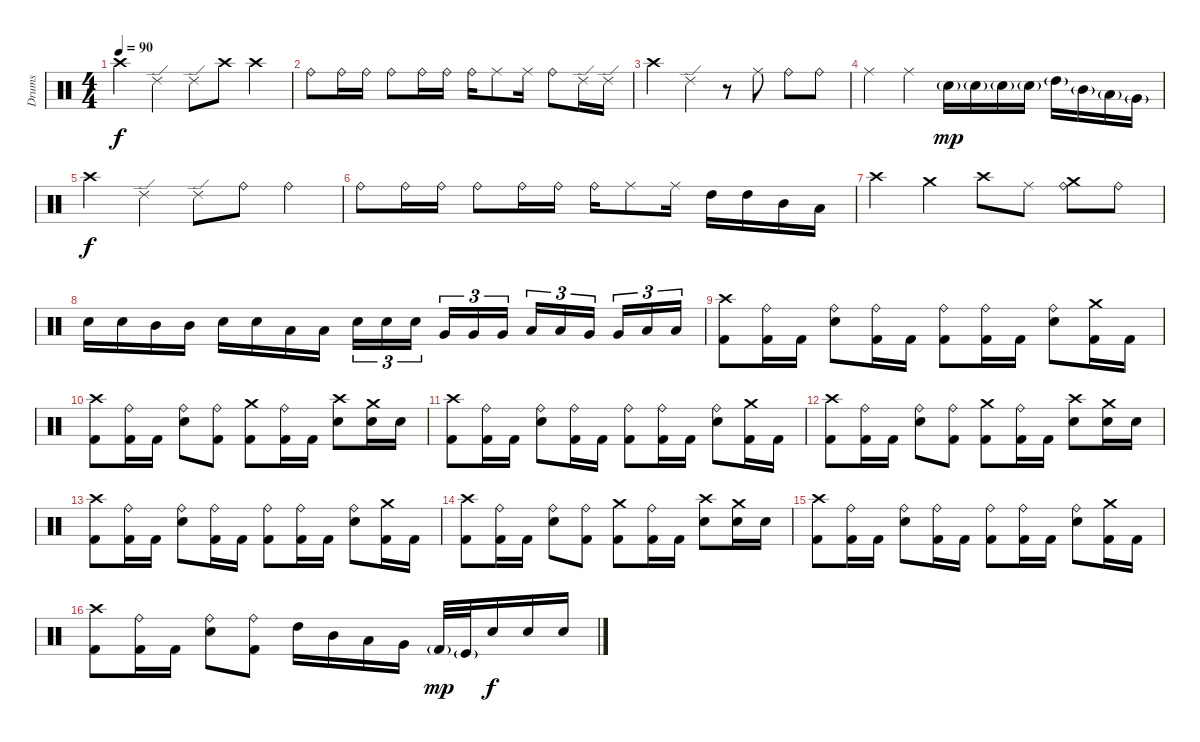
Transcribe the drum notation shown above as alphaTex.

\track ("Drums" "Drums") {instrument percussion}
\staff {score}
\articulation defaults
\ts (4 4)
\tempo 90
\clef neutral
\ks c "Crash high (hit)".4{dy f} "Ride (edge) 2".4 "Ride (edge) 2".8 "Crash high (hit)".8 "Crash high (hit)".4
|
"Ride (bell)".8 "Ride (bell)".16 "Ride (bell)".16 "Ride (bell)".8 "Ride (bell)".16 "Ride (bell)".16 "Ride (bell)".16 "Ride (middle)".8 "Ride (middle)".16 "Ride (bell)".8 "Ride (edge) 2".16 "Ride (edge) 2".16 |
"Crash high (hit)".4 "Ride (edge) 2".4 r.8 "Ride (middle)".8 "Ride (bell)".8 "Ride (bell)".8 |
"Ride (middle)".4 "Ride (middle)".4 "Snare (hit) 2"{g}.16{dy mp} "Snare (hit) 2"{g}.16 "Snare (hit) 2"{g}.16 "Snare (hit) 2"{g}.16 "High Tom (hit)"{g}.16 "Mid Tom (hit)"{g}.16 "Low Tom (hit)"{g}.16 "Very Low Tom (hit)"{g}.16 |
"Crash high (hit)".4{dy f} "Ride (edge) 2".4 "Ride (edge) 2".8 "Ride (bell)".8 "Ride (bell)".4 |
"Ride (bell)".8 "Ride (bell)".16 "Ride (bell)".16 "Ride (bell)".8 "Ride (bell)".16 "Ride (bell)".16 "Ride (bell)".16 "Ride (middle)".8 "Ride (middle)".16 "High Tom (hit)".16 "High Tom (hit)".16 "Mid Tom (hit)".16 "Low Tom (hit)".16 |
"Crash high (hit)".4 "Crash medium (hit)".4 "Crash high (hit)".8 "Ride (middle)".8 ("Crash medium (hit)" "Ride (bell)").8 "Ride (bell)".8 |
"Snare (hit) 2".16 "Snare (hit) 2".16 "Mid Tom (hit)".16 "Mid Tom (hit)".16 "Snare (hit) 2".16 "Snare (hit) 2".16 "Low Tom (hit)".16 "Low Tom (hit)".16 "Snare (hit) 2".16{tu (3 2)} "Snare (hit) 2".16{tu (3 2)} "Snare (hit) 2".16{tu (3 2)} "Very Low Tom (hit)".16{tu (3 2)} "Very Low Tom (hit)".16{tu (3 2)} "Very Low Tom (hit)".16{tu (3 2)} "Low Tom (hit)".16{tu (3 2)} "Low Tom (hit)".16{tu (3 2)} "Very Low Tom (hit)".16{tu (3 2)} "Very Low Tom (hit)".16{tu (3 2)} "Low Floor Tom (hit)".16{tu (3 2)} "Low Floor Tom (hit)".16{tu (3 2)} |
("Crash high (hit)" "Kick (hit) 2").8 ("Ride (bell)" "Kick (hit) 2").16 "Kick (hit) 2".16 ("Ride (bell)" "Snare (hit) 2").8 ("Ride (bell)" "Kick (hit) 2").16 "Kick (hit) 2".16 ("Ride (bell)" "Kick (hit) 2").8 ("Ride (bell)" "Kick (hit) 2").16 "Kick (hit) 2".16 ("Ride (bell)" "Snare (hit) 2").8 ("Crash medium (hit)" "Kick (hit) 2").16 "Kick (hit) 2".16 |
("Crash high (hit)" "Kick (hit) 2").8 ("Ride (bell)" "Kick (hit) 2").16 "Kick (hit) 2".16 ("Ride (bell)" "Snare (hit) 2").8 ("Ride (bell)" "Kick (hit) 2").8 ("Crash medium (hit)" "Kick (hit) 2").8 ("Ride (bell)" "Kick (hit) 2").16 "Kick (hit) 2".16 ("Crash high (hit)" "Snare (hit) 2").8 ("Crash medium (hit)" "Snare (hit) 2").16 "Snare (hit) 2".16 |
("Crash high (hit)" "Kick (hit) 2").8 ("Ride (bell)" "Kick (hit) 2").16 "Kick (hit) 2".16 ("Ride (bell)" "Snare (hit) 2").8 ("Ride (bell)" "Kick (hit) 2").16 "Kick (hit) 2".16 ("Ride (bell)" "Kick (hit) 2").8 ("Ride (bell)" "Kick (hit) 2").16 "Kick (hit) 2".16 ("Ride (bell)" "Snare (hit) 2").8 ("Crash medium (hit)" "Kick (hit) 2").16 "Kick (hit) 2".16 |
("Crash high (hit)" "Kick (hit) 2").8 ("Ride (bell)" "Kick (hit) 2").16 "Kick (hit) 2".16 ("Ride (bell)" "Snare (hit) 2").8 ("Ride (bell)" "Kick (hit) 2").8 ("Crash medium (hit)" "Kick (hit) 2").8 ("Ride (bell)" "Kick (hit) 2").16 "Kick (hit) 2".16 ("Crash high (hit)" "Snare (hit) 2").8 ("Crash medium (hit)" "Snare (hit) 2").16 "Snare (hit) 2".16 |
("Crash high (hit)" "Kick (hit) 2").8 ("Ride (bell)" "Kick (hit) 2").16 "Kick (hit) 2".16 ("Ride (bell)" "Snare (hit) 2").8 ("Ride (bell)" "Kick (hit) 2").16 "Kick (hit) 2".16 ("Ride (bell)" "Kick (hit) 2").8 ("Ride (bell)" "Kick (hit) 2").16 "Kick (hit) 2".16 ("Ride (bell)" "Snare (hit) 2").8 ("Crash medium (hit)" "Kick (hit) 2").16 "Kick (hit) 2".16 |
("Crash high (hit)" "Kick (hit) 2").8 ("Ride (bell)" "Kick (hit) 2").16 "Kick (hit) 2".16 ("Ride (bell)" "Snare (hit) 2").8 ("Ride (bell)" "Kick (hit) 2").8 ("Crash medium (hit)" "Kick (hit) 2").8 ("Ride (bell)" "Kick (hit) 2").16 "Kick (hit) 2".16 ("Crash high (hit)" "Snare (hit) 2").8 ("Crash medium (hit)" "Snare (hit) 2").16 "Snare (hit) 2".16 |
("Crash high (hit)" "Kick (hit) 2").8 ("Ride (bell)" "Kick (hit) 2").16 "Kick (hit) 2".16 ("Ride (bell)" "Snare (hit) 2").8 ("Ride (bell)" "Kick (hit) 2").16 "Kick (hit) 2".16 ("Ride (bell)" "Kick (hit) 2").8 ("Ride (bell)" "Kick (hit) 2").16 "Kick (hit) 2".16 ("Ride (bell)" "Snare (hit) 2").8 ("Crash medium (hit)" "Kick (hit) 2").16 "Kick (hit) 2".16 |
("Crash high (hit)" "Kick (hit) 2").8 ("Ride (bell)" "Kick (hit) 2").16 "Kick (hit) 2".16 ("Ride (bell)" "Snare (hit) 2").8 ("Ride (bell)" "Kick (hit) 2").8 "High Tom (hit)".16 "Mid Tom (hit)".16 "Low Tom (hit)".16 "Very Low Tom (hit)".16 "Kick (hit) 2"{g}.32{dy mp} "Kick (hit)"{g}.32 "Snare (hit) 2".16{dy f} "Snare (hit) 2".16 "Snare (hit) 2".16
